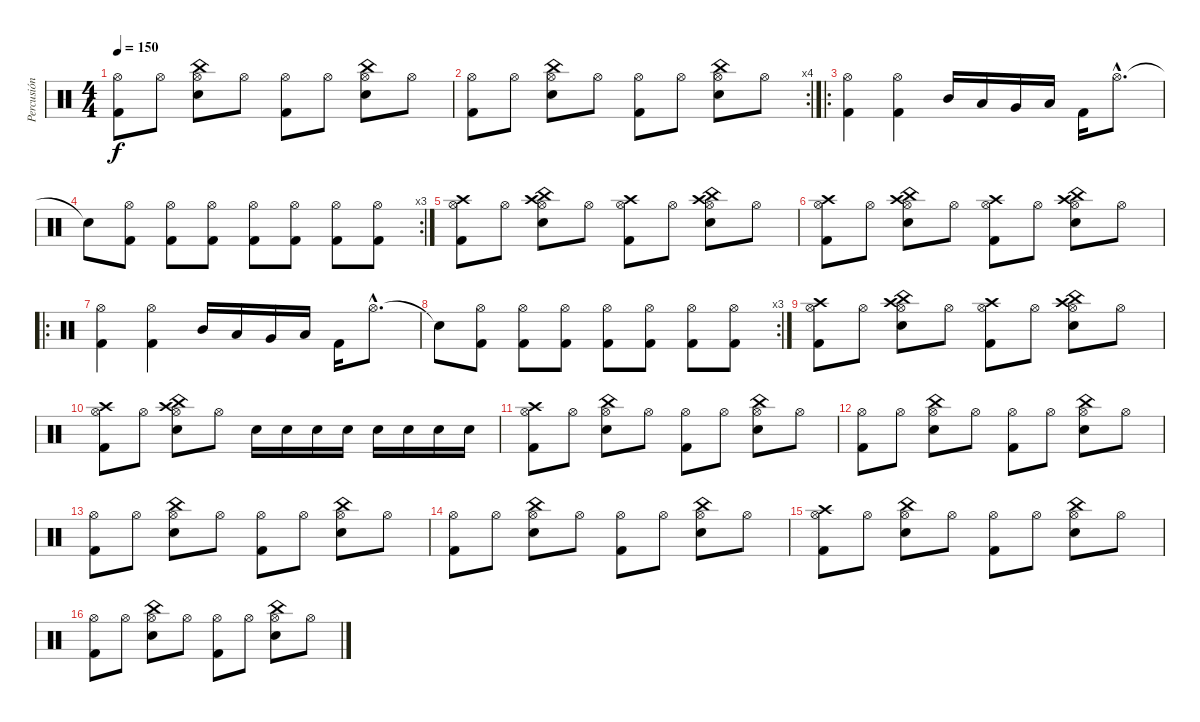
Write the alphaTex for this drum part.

\track ("Percusión (Raymundo Fajardo)" "Percusión ") {instrument percussion}
\staff {score}
\articulation defaults
\ts (4 4)
\tempo 150
\clef neutral
\ks c
("Hi-Hat (open)" "Kick (hit) 2").8{dy f} "Hi-Hat (open)".8 ("Hi-Hat (open)" "Snare (hit) 2" "China (hit)").8 "Hi-Hat (open)".8 ("Hi-Hat (open)" "Kick (hit) 2").8 "Hi-Hat (open)".8 ("Hi-Hat (open)" "Snare (hit) 2" "China (hit)").8 "Hi-Hat (open)".8 |
\rc 4
("Hi-Hat (open)" "Kick (hit) 2").8 "Hi-Hat (open)".8 ("Hi-Hat (open)" "Snare (hit) 2" "China (hit)").8 "Hi-Hat (open)".8 ("Hi-Hat (open)" "Kick (hit) 2").8 "Hi-Hat (open)".8 ("Hi-Hat (open)" "Snare (hit) 2" "China (hit)").8 "Hi-Hat (open)".8 |
\ro
("Hi-Hat (open)" "Kick (hit) 2").4 ("Hi-Hat (open)" "Kick (hit) 2").4 "Mid Tom (hit)".16 "Low Tom (hit)".16 "Very Low Tom (hit)".16 "Low Floor Tom (hit)".16 "Kick (hit) 2".16 "Hi-Hat (open)"{hac}.8{d} |
\rc 3 "Snare (hit)"{t}.8
("Hi-Hat (open)" "Kick (hit) 2").8 ("Hi-Hat (open)" "Kick (hit) 2").8 ("Hi-Hat (open)" "Kick (hit) 2").8 ("Hi-Hat (open)" "Kick (hit) 2").8 ("Hi-Hat (open)" "Kick (hit) 2").8 ("Hi-Hat (open)" "Kick (hit) 2").8 ("Hi-Hat (open)" "Kick (hit) 2").8 |
("Hi-Hat (open)" "Kick (hit) 2" "Crash high (hit)").8 "Hi-Hat (open)".8 ("Hi-Hat (open)" "Snare (hit) 2" "Crash high (hit)" "China (hit)").8 "Hi-Hat (open)".8 ("Hi-Hat (open)" "Kick (hit) 2" "Crash high (hit)").8 "Hi-Hat (open)".8 ("Hi-Hat (open)" "Snare (hit) 2" "Crash high (hit)" "China (hit)").8 "Hi-Hat (open)".8 |
("Hi-Hat (open)" "Kick (hit) 2" "Crash high (hit)").8 "Hi-Hat (open)".8 ("Hi-Hat (open)" "Snare (hit) 2" "Crash high (hit)" "China (hit)").8 "Hi-Hat (open)".8 ("Hi-Hat (open)" "Kick (hit) 2" "Crash high (hit)").8 "Hi-Hat (open)".8 ("Hi-Hat (open)" "Snare (hit) 2" "Crash high (hit)" "China (hit)").8 "Hi-Hat (open)".8 |
\ro
("Hi-Hat (open)" "Kick (hit) 2").4 ("Hi-Hat (open)" "Kick (hit) 2").4 "Mid Tom (hit)".16 "Low Tom (hit)".16 "Very Low Tom (hit)".16 "Low Floor Tom (hit)".16 "Kick (hit) 2".16 "Hi-Hat (open)"{hac}.8{d} |
\rc 3 "Snare (hit)"{t}.8
("Hi-Hat (open)" "Kick (hit) 2").8 ("Hi-Hat (open)" "Kick (hit) 2").8 ("Hi-Hat (open)" "Kick (hit) 2").8 ("Hi-Hat (open)" "Kick (hit) 2").8 ("Hi-Hat (open)" "Kick (hit) 2").8 ("Hi-Hat (open)" "Kick (hit) 2").8 ("Hi-Hat (open)" "Kick (hit) 2").8 |
("Hi-Hat (open)" "Kick (hit) 2" "Crash high (hit)").8 "Hi-Hat (open)".8 ("Hi-Hat (open)" "Snare (hit) 2" "Crash high (hit)" "China (hit)").8 "Hi-Hat (open)".8 ("Hi-Hat (open)" "Kick (hit) 2" "Crash high (hit)").8 "Hi-Hat (open)".8 ("Hi-Hat (open)" "Snare (hit) 2" "Crash high (hit)" "China (hit)").8 "Hi-Hat (open)".8 |
("Hi-Hat (open)" "Kick (hit) 2" "Crash high (hit)").8 "Hi-Hat (open)".8 ("Hi-Hat (open)" "Snare (hit) 2" "Crash high (hit)" "China (hit)").8 "Hi-Hat (open)".8 "Electric Snare (hit)".16 "Electric Snare (hit)".16 "Electric Snare (hit)".16 "Electric Snare (hit)".16 "Electric Snare (hit)".16 "Electric Snare (hit)".16 "Electric Snare (hit)".16 "Electric Snare (hit)".16 |
("Hi-Hat (open)" "Crash high (hit)" "Kick (hit) 2").8 "Hi-Hat (open)".8 ("Hi-Hat (open)" "Snare (hit) 2" "China (hit)").8 "Hi-Hat (open)".8 ("Hi-Hat (open)" "Kick (hit) 2").8 "Hi-Hat (open)".8 ("Hi-Hat (open)" "Snare (hit) 2" "China (hit)").8 "Hi-Hat (open)".8 |
("Hi-Hat (open)" "Kick (hit) 2").8 "Hi-Hat (open)".8 ("Hi-Hat (open)" "Snare (hit) 2" "China (hit)").8 "Hi-Hat (open)".8 ("Hi-Hat (open)" "Kick (hit) 2").8 "Hi-Hat (open)".8 ("Hi-Hat (open)" "Snare (hit) 2" "China (hit)").8 "Hi-Hat (open)".8 |
("Hi-Hat (open)" "Kick (hit) 2").8 "Hi-Hat (open)".8 ("Hi-Hat (open)" "Snare (hit) 2" "China (hit)").8 "Hi-Hat (open)".8 ("Hi-Hat (open)" "Kick (hit) 2").8 "Hi-Hat (open)".8 ("Hi-Hat (open)" "Snare (hit) 2" "China (hit)").8 "Hi-Hat (open)".8 |
("Hi-Hat (open)" "Kick (hit) 2").8 "Hi-Hat (open)".8 ("Hi-Hat (open)" "Snare (hit) 2" "China (hit)").8 "Hi-Hat (open)".8 ("Hi-Hat (open)" "Kick (hit) 2").8 "Hi-Hat (open)".8 ("Hi-Hat (open)" "Snare (hit) 2" "China (hit)").8 "Hi-Hat (open)".8 |
("Hi-Hat (open)" "Crash high (hit)" "Kick (hit) 2").8 "Hi-Hat (open)".8 ("Hi-Hat (open)" "Snare (hit) 2" "China (hit)").8 "Hi-Hat (open)".8 ("Hi-Hat (open)" "Kick (hit) 2").8 "Hi-Hat (open)".8 ("Hi-Hat (open)" "Snare (hit) 2" "China (hit)").8 "Hi-Hat (open)".8 |
("Hi-Hat (open)" "Kick (hit) 2").8 "Hi-Hat (open)".8 ("Hi-Hat (open)" "Snare (hit) 2" "China (hit)").8 "Hi-Hat (open)".8 ("Hi-Hat (open)" "Kick (hit) 2").8 "Hi-Hat (open)".8 ("Hi-Hat (open)" "Snare (hit) 2" "China (hit)").8 "Hi-Hat (open)".8
